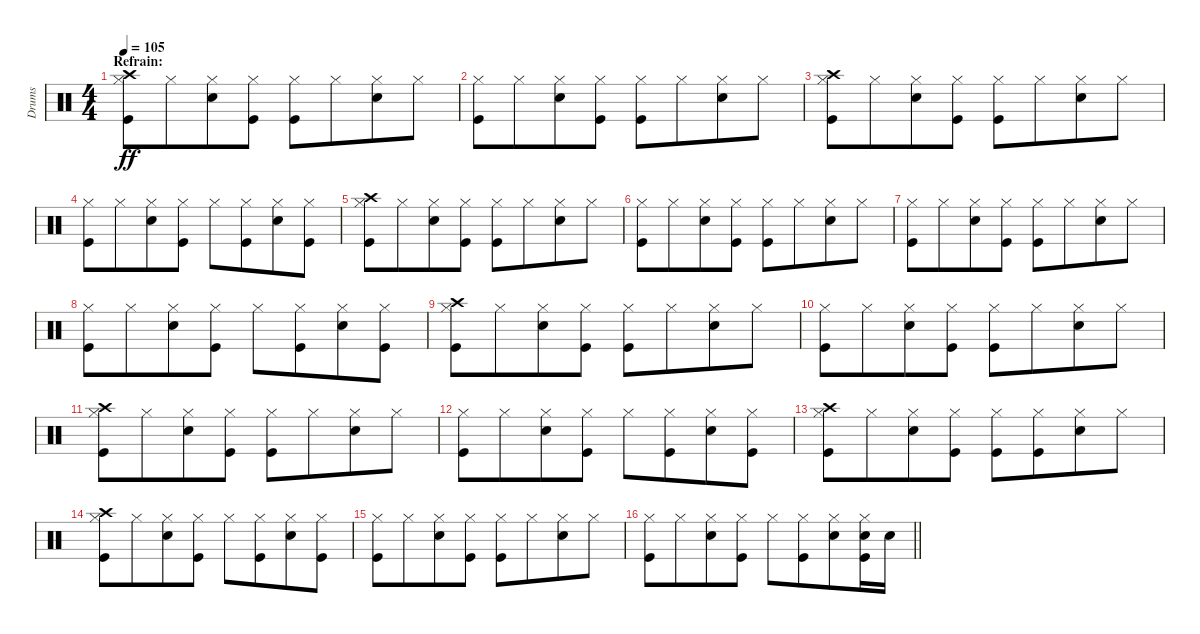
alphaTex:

\track ("Drums" "Drums") {instrument percussion}
\staff {score}
\articulation defaults
\ts (4 4)
\section ("" "Refrain:")
\tempo 105
\clef neutral
\ks c
("Hi-Hat (closed)" "Crash high (hit)" "Kick (hit)").8{dy ff} "Hi-Hat (closed)".8{beam merge} ("Hi-Hat (closed)" "Snare (hit) 2").8 ("Hi-Hat (closed)" "Kick (hit)").8 ("Hi-Hat (closed)" "Kick (hit)").8 "Hi-Hat (closed)".8{beam merge} ("Hi-Hat (closed)" "Snare (hit) 2").8 "Hi-Hat (closed)".8 |
("Hi-Hat (closed)" "Kick (hit)").8 "Hi-Hat (closed)".8{beam merge} ("Hi-Hat (closed)" "Snare (hit) 2").8 ("Hi-Hat (closed)" "Kick (hit)").8 ("Hi-Hat (closed)" "Kick (hit)").8 "Hi-Hat (closed)".8{beam merge} ("Hi-Hat (closed)" "Snare (hit) 2").8 "Hi-Hat (closed)".8 |
("Hi-Hat (closed)" "Crash high (hit)" "Kick (hit)").8 "Hi-Hat (closed)".8{beam merge} ("Hi-Hat (closed)" "Snare (hit) 2").8 ("Hi-Hat (closed)" "Kick (hit)").8 ("Hi-Hat (closed)" "Kick (hit)").8 "Hi-Hat (closed)".8{beam merge} ("Hi-Hat (closed)" "Snare (hit) 2").8 "Hi-Hat (closed)".8 |
("Hi-Hat (closed)" "Kick (hit)").8 "Hi-Hat (closed)".8{beam merge} ("Hi-Hat (closed)" "Snare (hit) 2").8 ("Hi-Hat (closed)" "Kick (hit)").8 "Hi-Hat (closed)".8 ("Hi-Hat (closed)" "Kick (hit)").8{beam merge} ("Hi-Hat (closed)" "Snare (hit) 2").8 ("Hi-Hat (closed)" "Kick (hit)").8 |
("Hi-Hat (closed)" "Crash high (hit)" "Kick (hit)").8 "Hi-Hat (closed)".8{beam merge} ("Hi-Hat (closed)" "Snare (hit) 2").8 ("Hi-Hat (closed)" "Kick (hit)").8 ("Hi-Hat (closed)" "Kick (hit)").8 "Hi-Hat (closed)".8{beam merge} ("Hi-Hat (closed)" "Snare (hit) 2").8 "Hi-Hat (closed)".8 |
("Hi-Hat (closed)" "Kick (hit)").8 "Hi-Hat (closed)".8{beam merge} ("Hi-Hat (closed)" "Snare (hit) 2").8 ("Hi-Hat (closed)" "Kick (hit)").8 ("Hi-Hat (closed)" "Kick (hit)").8 "Hi-Hat (closed)".8{beam merge} ("Hi-Hat (closed)" "Snare (hit) 2").8 "Hi-Hat (closed)".8 |
("Hi-Hat (closed)" "Kick (hit)").8 "Hi-Hat (closed)".8{beam merge} ("Hi-Hat (closed)" "Snare (hit) 2").8 ("Hi-Hat (closed)" "Kick (hit)").8 ("Hi-Hat (closed)" "Kick (hit)").8 "Hi-Hat (closed)".8{beam merge} ("Hi-Hat (closed)" "Snare (hit) 2").8 "Hi-Hat (closed)".8 |
("Hi-Hat (closed)" "Kick (hit)").8 "Hi-Hat (closed)".8{beam merge} ("Hi-Hat (closed)" "Snare (hit) 2").8 ("Hi-Hat (closed)" "Kick (hit)").8 "Hi-Hat (closed)".8 ("Hi-Hat (closed)" "Kick (hit)").8{beam merge} ("Hi-Hat (closed)" "Snare (hit) 2").8 ("Hi-Hat (closed)" "Kick (hit)").8 |
("Hi-Hat (closed)" "Crash high (hit)" "Kick (hit)").8 "Hi-Hat (closed)".8{beam merge} ("Hi-Hat (closed)" "Snare (hit) 2").8 ("Hi-Hat (closed)" "Kick (hit)").8 ("Hi-Hat (closed)" "Kick (hit)").8 "Hi-Hat (closed)".8{beam merge} ("Hi-Hat (closed)" "Snare (hit) 2").8 "Hi-Hat (closed)".8 |
("Hi-Hat (closed)" "Kick (hit)").8 "Hi-Hat (closed)".8{beam merge} ("Hi-Hat (closed)" "Snare (hit) 2").8 ("Hi-Hat (closed)" "Kick (hit)").8 ("Hi-Hat (closed)" "Kick (hit)").8 "Hi-Hat (closed)".8{beam merge} ("Hi-Hat (closed)" "Snare (hit) 2").8 "Hi-Hat (closed)".8 |
("Hi-Hat (closed)" "Crash high (hit)" "Kick (hit)").8 "Hi-Hat (closed)".8{beam merge} ("Hi-Hat (closed)" "Snare (hit) 2").8 ("Hi-Hat (closed)" "Kick (hit)").8 ("Hi-Hat (closed)" "Kick (hit)").8 "Hi-Hat (closed)".8{beam merge} ("Hi-Hat (closed)" "Snare (hit) 2").8 "Hi-Hat (closed)".8 |
("Hi-Hat (closed)" "Kick (hit)").8 "Hi-Hat (closed)".8{beam merge} ("Hi-Hat (closed)" "Snare (hit) 2").8 ("Hi-Hat (closed)" "Kick (hit)").8 "Hi-Hat (closed)".8 ("Hi-Hat (closed)" "Kick (hit)").8{beam merge} ("Hi-Hat (closed)" "Snare (hit) 2").8 ("Hi-Hat (closed)" "Kick (hit)").8 |
("Hi-Hat (closed)" "Crash high (hit)" "Kick (hit)").8 "Hi-Hat (closed)".8{beam merge} ("Hi-Hat (closed)" "Snare (hit) 2").8 ("Hi-Hat (closed)" "Kick (hit)").8 ("Hi-Hat (closed)" "Kick (hit)").8 ("Hi-Hat (closed)" "Kick (hit)").8{beam merge} ("Hi-Hat (closed)" "Snare (hit) 2").8 "Hi-Hat (closed)".8 |
("Hi-Hat (closed)" "Crash high (hit)" "Kick (hit)").8 "Hi-Hat (closed)".8{beam merge} ("Hi-Hat (closed)" "Snare (hit) 2").8 ("Hi-Hat (closed)" "Kick (hit)").8 "Hi-Hat (closed)".8 ("Hi-Hat (closed)" "Kick (hit)").8{beam merge} ("Hi-Hat (closed)" "Snare (hit) 2").8 ("Hi-Hat (closed)" "Kick (hit)").8 |
("Hi-Hat (closed)" "Kick (hit)").8 "Hi-Hat (closed)".8{beam merge} ("Hi-Hat (closed)" "Snare (hit) 2").8 ("Hi-Hat (closed)" "Kick (hit)").8 ("Hi-Hat (closed)" "Kick (hit)").8 "Hi-Hat (closed)".8{beam merge} ("Hi-Hat (closed)" "Snare (hit) 2").8 "Hi-Hat (closed)".8 |
\barLineRight lightlight
("Hi-Hat (closed)" "Kick (hit)").8 "Hi-Hat (closed)".8{beam merge} ("Hi-Hat (closed)" "Snare (hit) 2").8 ("Hi-Hat (closed)" "Kick (hit)").8 "Hi-Hat (closed)".8 ("Hi-Hat (closed)" "Kick (hit)").8{beam merge} ("Hi-Hat (closed)" "Snare (hit) 2").8 ("Hi-Hat (closed)" "Snare (hit) 2" "Kick (hit)").16 "Snare (hit) 2".16
